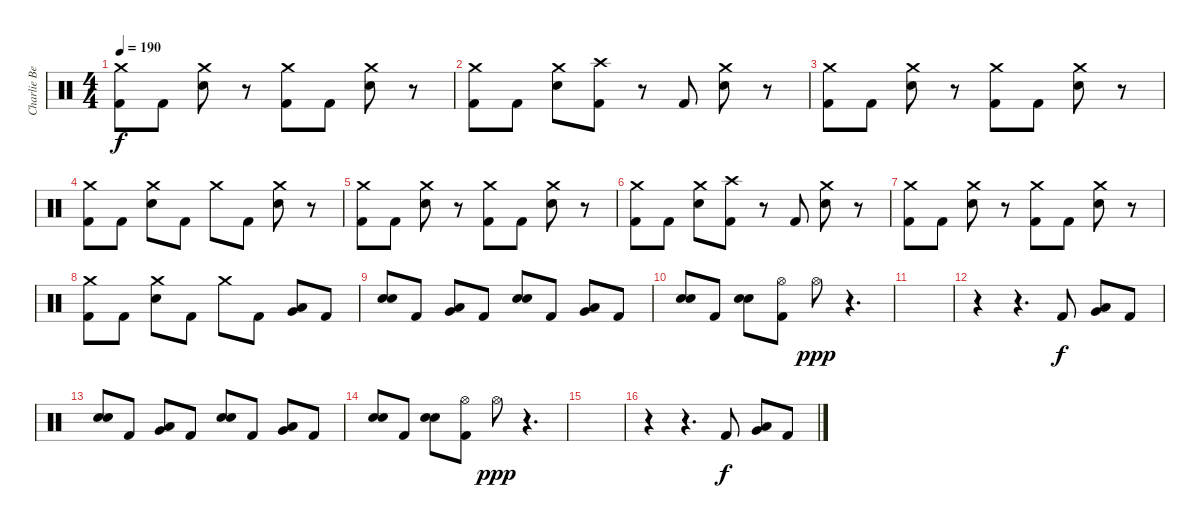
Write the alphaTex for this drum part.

\track ("Charlie Benante" "Charlie Be") {instrument percussion}
\staff {score}
\articulation defaults
\ts (4 4)
\tempo 190
\clef neutral
\ks c
("Kick (hit) 2" "Crash medium (hit)").8{dy f} "Kick (hit) 2".8 ("Snare (hit) 2" "Crash medium (hit)").8 r.8 ("Kick (hit) 2" "Crash medium (hit)").8 "Kick (hit) 2".8 ("Snare (hit) 2" "Crash medium (hit)").8 r.8 |
("Kick (hit) 2" "Crash medium (hit)").8 "Kick (hit) 2".8 ("Snare (hit) 2" "Crash medium (hit)").8 ("Kick (hit) 2" "Crash high (hit)").8 r.8 "Kick (hit) 2".8 ("Snare (hit) 2" "Crash medium (hit)").8 r.8 |
("Kick (hit) 2" "Crash medium (hit)").8 "Kick (hit) 2".8 ("Snare (hit) 2" "Crash medium (hit)").8 r.8 ("Kick (hit) 2" "Crash medium (hit)").8 "Kick (hit) 2".8 ("Snare (hit) 2" "Crash medium (hit)").8 r.8 |
("Kick (hit) 2" "Crash medium (hit)").8 "Kick (hit) 2".8 ("Snare (hit) 2" "Crash medium (hit)").8 "Kick (hit) 2".8 "Crash medium (hit)".8 "Kick (hit) 2".8 ("Snare (hit) 2" "Crash medium (hit)").8 r.8 |
("Kick (hit) 2" "Crash medium (hit)").8 "Kick (hit) 2".8 ("Snare (hit) 2" "Crash medium (hit)").8 r.8 ("Kick (hit) 2" "Crash medium (hit)").8 "Kick (hit) 2".8 ("Snare (hit) 2" "Crash medium (hit)").8 r.8 |
("Kick (hit) 2" "Crash medium (hit)").8 "Kick (hit) 2".8 ("Snare (hit) 2" "Crash medium (hit)").8 ("Kick (hit) 2" "Crash high (hit)").8 r.8 "Kick (hit) 2".8 ("Snare (hit) 2" "Crash medium (hit)").8 r.8 |
("Kick (hit) 2" "Crash medium (hit)").8 "Kick (hit) 2".8 ("Snare (hit) 2" "Crash medium (hit)").8 r.8 ("Kick (hit) 2" "Crash medium (hit)").8 "Kick (hit) 2".8 ("Snare (hit) 2" "Crash medium (hit)").8 r.8 |
("Kick (hit) 2" "Crash medium (hit)").8 "Kick (hit) 2".8 ("Snare (hit) 2" "Crash medium (hit)").8 "Kick (hit) 2".8 "Crash medium (hit)".8 "Kick (hit) 2".8 ("Very Low Tom (hit)" "Low Floor Tom (hit)").8{bd 120} "Kick (hit) 2".8 |
("Snare (hit) 2" "Snare (hit) 2").8{bd 120} "Kick (hit) 2".8 ("Very Low Tom (hit)" "Low Floor Tom (hit)").8{bd 120} "Kick (hit) 2".8 ("Snare (hit) 2" "Snare (hit) 2").8{bd 120} "Kick (hit) 2".8 ("Very Low Tom (hit)" "Low Floor Tom (hit)").8{bd 120} "Kick (hit) 2".8 |
("Snare (hit) 2" "Snare (hit) 2").8{bd 120} "Kick (hit) 2".8 ("Snare (hit) 2" "Snare (hit) 2").8{bd 120} ("Kick (hit) 2" "Hi-Hat (open)").8 "Hi-Hat (open)".8{dy ppp} r.4{d} |
|
r.4 r.4{d} "Kick (hit) 2".8{dy f} ("Very Low Tom (hit)" "Low Floor Tom (hit)").8{bd 120} "Kick (hit) 2".8 |
("Snare (hit) 2" "Snare (hit) 2").8{bd 120} "Kick (hit) 2".8 ("Very Low Tom (hit)" "Low Floor Tom (hit)").8{bd 120} "Kick (hit) 2".8 ("Snare (hit) 2" "Snare (hit) 2").8{bd 120} "Kick (hit) 2".8 ("Very Low Tom (hit)" "Low Floor Tom (hit)").8{bd 120} "Kick (hit) 2".8 |
("Snare (hit) 2" "Snare (hit) 2").8{bd 120} "Kick (hit) 2".8 ("Snare (hit) 2" "Snare (hit) 2").8{bd 120} ("Kick (hit) 2" "Hi-Hat (open)").8 "Hi-Hat (open)".8{dy ppp} r.4{d} |
|
r.4 r.4{d} "Kick (hit) 2".8{dy f} ("Very Low Tom (hit)" "Low Floor Tom (hit)").8{bd 120} "Kick (hit) 2".8
